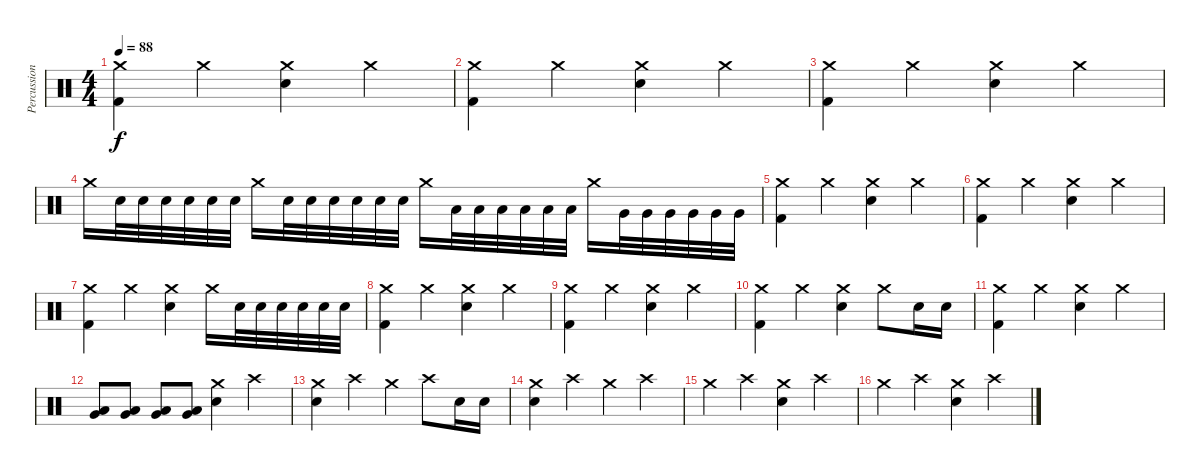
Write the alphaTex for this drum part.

\track ("Percussion" "Percussion") {instrument percussion}
\staff {score}
\articulation defaults
\ts (4 4)
\tempo 88
\clef neutral
\ks c
("Crash medium (hit)" "Kick (hit) 2").4{dy f} "Crash medium (hit)".4 ("Crash medium (hit)" "Electric Snare (hit)").4 "Crash medium (hit)".4 |
("Crash medium (hit)" "Kick (hit) 2").4 "Crash medium (hit)".4 ("Crash medium (hit)" "Electric Snare (hit)").4 "Crash medium (hit)".4 |
("Crash medium (hit)" "Kick (hit) 2").4 "Crash medium (hit)".4 ("Crash medium (hit)" "Electric Snare (hit)").4 "Crash medium (hit)".4 |
"Crash medium (hit)".16 "Snare (hit) 2".32 "Snare (hit) 2".32 "Snare (hit) 2".32 "Snare (hit) 2".32 "Snare (hit) 2".32 "Snare (hit) 2".32 "Crash medium (hit)".16 "Snare (hit) 2".32 "Snare (hit) 2".32 "Snare (hit) 2".32 "Snare (hit) 2".32 "Snare (hit) 2".32 "Snare (hit) 2".32 "Crash medium (hit)".16 "Low Tom (hit)".32 "Low Tom (hit)".32 "Low Tom (hit)".32 "Low Tom (hit)".32 "Low Tom (hit)".32 "Low Tom (hit)".32 "Crash medium (hit)".16 "Very Low Tom (hit)".32 "Very Low Tom (hit)".32 "Very Low Tom (hit)".32 "Very Low Tom (hit)".32 "Very Low Tom (hit)".32 "Very Low Tom (hit)".32 |
("Crash medium (hit)" "Kick (hit) 2").4 "Crash medium (hit)".4 ("Crash medium (hit)" "Electric Snare (hit)").4 "Crash medium (hit)".4 |
("Crash medium (hit)" "Kick (hit) 2").4 "Crash medium (hit)".4 ("Crash medium (hit)" "Electric Snare (hit)").4 "Crash medium (hit)".4 |
("Kick (hit) 2" "Crash medium (hit)").4 "Crash medium (hit)".4 ("Electric Snare (hit)" "Crash medium (hit)").4 "Crash medium (hit)".16 "Snare (hit) 2".32 "Snare (hit) 2".32 "Snare (hit) 2".32 "Snare (hit) 2".32 "Snare (hit) 2".32 "Snare (hit) 2".32 |
("Crash medium (hit)" "Kick (hit) 2").4 "Crash medium (hit)".4 ("Crash medium (hit)" "Electric Snare (hit)").4 "Crash medium (hit)".4 |
("Crash medium (hit)" "Kick (hit) 2").4 "Crash medium (hit)".4 ("Crash medium (hit)" "Electric Snare (hit)").4 "Crash medium (hit)".4 |
("Crash medium (hit)" "Kick (hit) 2").4 "Crash medium (hit)".4 ("Crash medium (hit)" "Electric Snare (hit)").4 "Crash medium (hit)".8 "Electric Snare (hit)".16 "Electric Snare (hit)".16 |
("Crash medium (hit)" "Kick (hit) 2").4 "Crash medium (hit)".4 ("Crash medium (hit)" "Electric Snare (hit)").4 "Crash medium (hit)".4 |
("Low Tom (hit)" "Very Low Tom (hit)").8 ("Low Tom (hit)" "Very Low Tom (hit)").8 ("Low Tom (hit)" "Very Low Tom (hit)").8 ("Low Tom (hit)" "Very Low Tom (hit)").8 ("Crash medium (hit)" "Electric Snare (hit)").4 "Crash high (hit)".4 |
("Crash medium (hit)" "Electric Snare (hit)").4 "Crash high (hit)".4 "Crash medium (hit)".4 "Crash high (hit)".8 "Electric Snare (hit)".16 "Electric Snare (hit)".16 |
("Crash medium (hit)" "Electric Snare (hit)").4 "Crash high (hit)".4 "Crash medium (hit)".4 "Crash high (hit)".4 |
"Crash medium (hit)".4 "Crash high (hit)".4 ("Crash medium (hit)" "Electric Snare (hit)").4 "Crash high (hit)".4 |
"Crash medium (hit)".4 "Crash high (hit)".4 ("Crash medium (hit)" "Electric Snare (hit)").4 "Crash high (hit)".4
